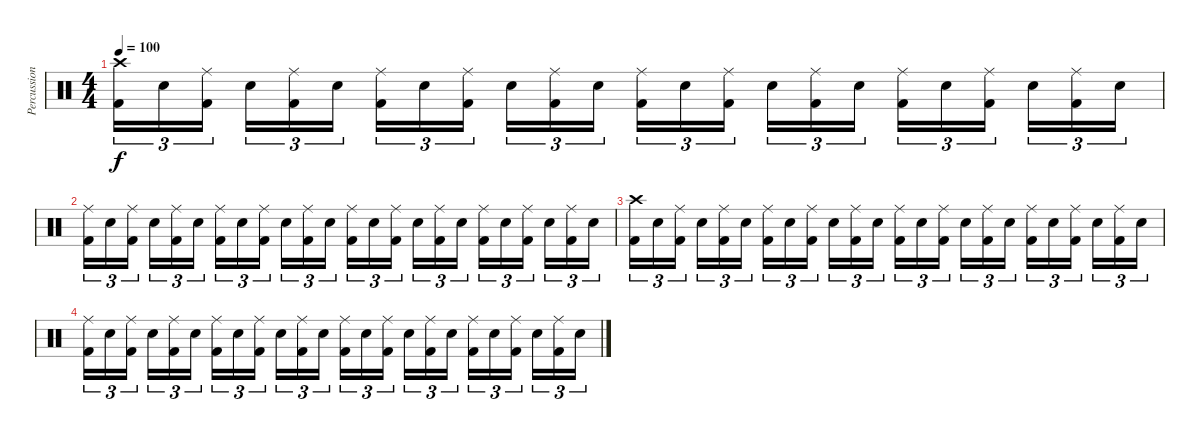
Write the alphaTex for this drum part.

\track ("Percussion" "Percussion") {instrument percussion}
\staff {score}
\articulation defaults
\ts (4 4)
\tempo 100
\clef neutral
\ks c
("Crash high (hit)" "Kick (hit) 2").16{tu (3 2) dy f} "Electric Snare (hit)".16{tu (3 2)} ("Ride (middle)" "Kick (hit) 2").16{tu (3 2)} "Electric Snare (hit)".16{tu (3 2)} ("Ride (middle)" "Kick (hit) 2").16{tu (3 2)} "Electric Snare (hit)".16{tu (3 2)} ("Ride (middle)" "Kick (hit) 2").16{tu (3 2)} "Electric Snare (hit)".16{tu (3 2)} ("Ride (middle)" "Kick (hit) 2").16{tu (3 2)} "Electric Snare (hit)".16{tu (3 2)} ("Ride (middle)" "Kick (hit) 2").16{tu (3 2)} "Electric Snare (hit)".16{tu (3 2)} ("Ride (middle)" "Kick (hit) 2").16{tu (3 2)} "Electric Snare (hit)".16{tu (3 2)} ("Ride (middle)" "Kick (hit) 2").16{tu (3 2)} "Electric Snare (hit)".16{tu (3 2)} ("Ride (middle)" "Kick (hit) 2").16{tu (3 2)} "Electric Snare (hit)".16{tu (3 2)} ("Ride (middle)" "Kick (hit) 2").16{tu (3 2)} "Electric Snare (hit)".16{tu (3 2)} ("Ride (middle)" "Kick (hit) 2").16{tu (3 2)} "Electric Snare (hit)".16{tu (3 2)} ("Ride (middle)" "Kick (hit) 2").16{tu (3 2)} "Electric Snare (hit)".16{tu (3 2)} |
("Ride (middle)" "Kick (hit) 2").16{tu (3 2)} "Electric Snare (hit)".16{tu (3 2)} ("Ride (middle)" "Kick (hit) 2").16{tu (3 2)} "Electric Snare (hit)".16{tu (3 2)} ("Ride (middle)" "Kick (hit) 2").16{tu (3 2)} "Electric Snare (hit)".16{tu (3 2)} ("Ride (middle)" "Kick (hit) 2").16{tu (3 2)} "Electric Snare (hit)".16{tu (3 2)} ("Ride (middle)" "Kick (hit) 2").16{tu (3 2)} "Electric Snare (hit)".16{tu (3 2)} ("Ride (middle)" "Kick (hit) 2").16{tu (3 2)} "Electric Snare (hit)".16{tu (3 2)} ("Ride (middle)" "Kick (hit) 2").16{tu (3 2)} "Electric Snare (hit)".16{tu (3 2)} ("Ride (middle)" "Kick (hit) 2").16{tu (3 2)} "Electric Snare (hit)".16{tu (3 2)} ("Ride (middle)" "Kick (hit) 2").16{tu (3 2)} "Electric Snare (hit)".16{tu (3 2)} ("Ride (middle)" "Kick (hit) 2").16{tu (3 2)} "Electric Snare (hit)".16{tu (3 2)} ("Ride (middle)" "Kick (hit) 2").16{tu (3 2)} "Electric Snare (hit)".16{tu (3 2)} ("Ride (middle)" "Kick (hit) 2").16{tu (3 2)} "Electric Snare (hit)".16{tu (3 2)} |
("Crash high (hit)" "Kick (hit) 2").16{tu (3 2)} "Electric Snare (hit)".16{tu (3 2)} ("Ride (middle)" "Kick (hit) 2").16{tu (3 2)} "Electric Snare (hit)".16{tu (3 2)} ("Ride (middle)" "Kick (hit) 2").16{tu (3 2)} "Electric Snare (hit)".16{tu (3 2)} ("Ride (middle)" "Kick (hit) 2").16{tu (3 2)} "Electric Snare (hit)".16{tu (3 2)} ("Ride (middle)" "Kick (hit) 2").16{tu (3 2)} "Electric Snare (hit)".16{tu (3 2)} ("Ride (middle)" "Kick (hit) 2").16{tu (3 2)} "Electric Snare (hit)".16{tu (3 2)} ("Ride (middle)" "Kick (hit) 2").16{tu (3 2)} "Electric Snare (hit)".16{tu (3 2)} ("Ride (middle)" "Kick (hit) 2").16{tu (3 2)} "Electric Snare (hit)".16{tu (3 2)} ("Ride (middle)" "Kick (hit) 2").16{tu (3 2)} "Electric Snare (hit)".16{tu (3 2)} ("Ride (middle)" "Kick (hit) 2").16{tu (3 2)} "Electric Snare (hit)".16{tu (3 2)} ("Ride (middle)" "Kick (hit) 2").16{tu (3 2)} "Electric Snare (hit)".16{tu (3 2)} ("Ride (middle)" "Kick (hit) 2").16{tu (3 2)} "Electric Snare (hit)".16{tu (3 2)} |
("Ride (middle)" "Kick (hit) 2").16{tu (3 2)} "Electric Snare (hit)".16{tu (3 2)} ("Ride (middle)" "Kick (hit) 2").16{tu (3 2)} "Electric Snare (hit)".16{tu (3 2)} ("Ride (middle)" "Kick (hit) 2").16{tu (3 2)} "Electric Snare (hit)".16{tu (3 2)} ("Ride (middle)" "Kick (hit) 2").16{tu (3 2)} "Electric Snare (hit)".16{tu (3 2)} ("Ride (middle)" "Kick (hit) 2").16{tu (3 2)} "Electric Snare (hit)".16{tu (3 2)} ("Ride (middle)" "Kick (hit) 2").16{tu (3 2)} "Electric Snare (hit)".16{tu (3 2)} ("Ride (middle)" "Kick (hit) 2").16{tu (3 2)} "Electric Snare (hit)".16{tu (3 2)} ("Ride (middle)" "Kick (hit) 2").16{tu (3 2)} "Electric Snare (hit)".16{tu (3 2)} ("Ride (middle)" "Kick (hit) 2").16{tu (3 2)} "Electric Snare (hit)".16{tu (3 2)} ("Ride (middle)" "Kick (hit) 2").16{tu (3 2)} "Electric Snare (hit)".16{tu (3 2)} ("Ride (middle)" "Kick (hit) 2").16{tu (3 2)} "Electric Snare (hit)".16{tu (3 2)} ("Ride (middle)" "Kick (hit) 2").16{tu (3 2)} "Electric Snare (hit)".16{tu (3 2)}
